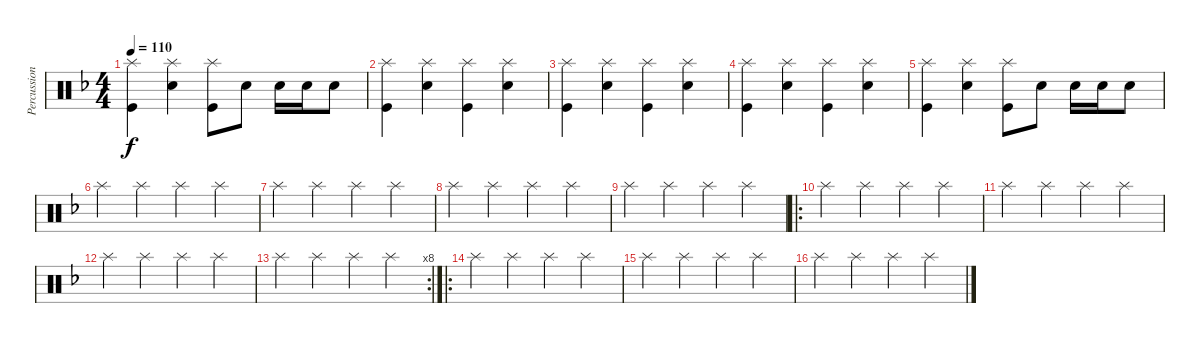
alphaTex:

\track ("Percussion" "Percussion") {instrument percussion}
\staff {score}
\articulation defaults
\ts (4 4)
\tempo 110
\clef neutral
\ks dminor
("Splash (hit)" "Kick (hit)").4{dy f} ("Splash (hit)" "Snare (hit) 2").4 ("Splash (hit)" "Kick (hit)").8 "Snare (hit) 2".8 "Snare (hit) 2".16 "Snare (hit) 2".16 "Snare (hit) 2".8 |
("Splash (hit)" "Kick (hit)").4 ("Splash (hit)" "Snare (hit) 2").4 ("Splash (hit)" "Kick (hit)").4 ("Splash (hit)" "Snare (hit) 2").4 |
("Splash (hit)" "Kick (hit)").4 ("Splash (hit)" "Snare (hit) 2").4 ("Splash (hit)" "Kick (hit)").4 ("Splash (hit)" "Snare (hit) 2").4 |
("Splash (hit)" "Kick (hit)").4 ("Splash (hit)" "Snare (hit) 2").4 ("Splash (hit)" "Kick (hit)").4 ("Splash (hit)" "Snare (hit) 2").4 |
("Splash (hit)" "Kick (hit)").4 ("Splash (hit)" "Snare (hit) 2").4 ("Splash (hit)" "Kick (hit)").8 "Snare (hit) 2".8 "Snare (hit) 2".16 "Snare (hit) 2".16 "Snare (hit) 2".8 |
"Splash (hit)".4 "Splash (hit)".4 "Splash (hit)".4 "Splash (hit)".4 |
"Splash (hit)".4 "Splash (hit)".4 "Splash (hit)".4 "Splash (hit)".4 |
"Splash (hit)".4 "Splash (hit)".4 "Splash (hit)".4 "Splash (hit)".4 |
"Splash (hit)".4 "Splash (hit)".4 "Splash (hit)".4 "Splash (hit)".4 |
\ro "Splash (hit)".4 "Splash (hit)".4 "Splash (hit)".4 "Splash (hit)".4
|
"Splash (hit)".4 "Splash (hit)".4 "Splash (hit)".4 "Splash (hit)".4 |
"Splash (hit)".4 "Splash (hit)".4 "Splash (hit)".4 "Splash (hit)".4 |
\rc 8 "Splash (hit)".4 "Splash (hit)".4 "Splash (hit)".4 "Splash (hit)".4
|
\ro "Splash (hit)".4 "Splash (hit)".4 "Splash (hit)".4 "Splash (hit)".4
|
"Splash (hit)".4 "Splash (hit)".4 "Splash (hit)".4 "Splash (hit)".4 |
"Splash (hit)".4 "Splash (hit)".4 "Splash (hit)".4 "Splash (hit)".4
